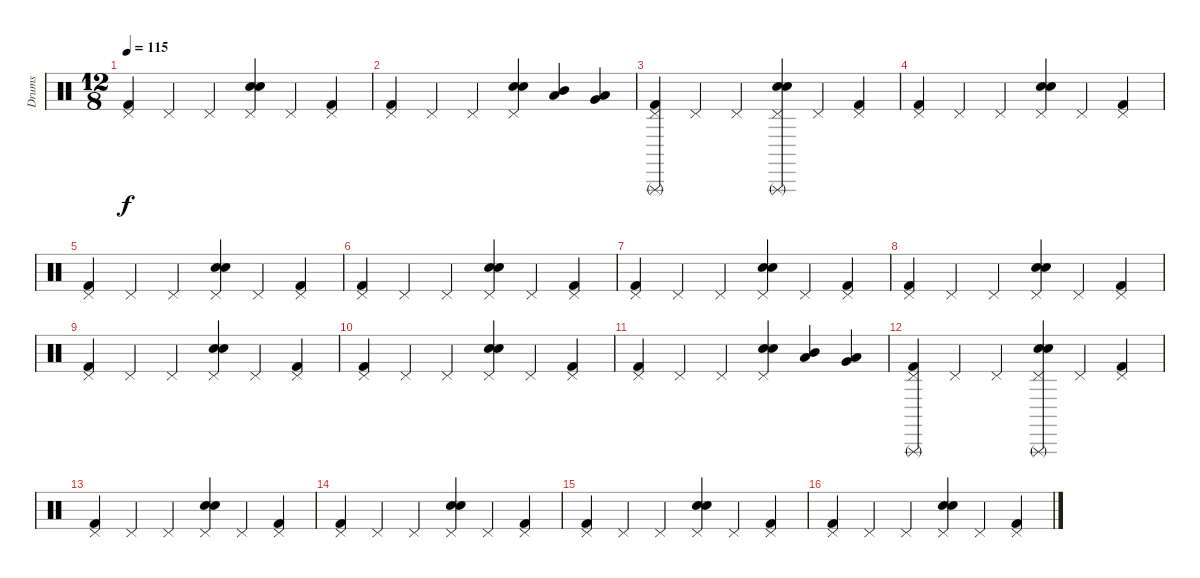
\track ("Drums" "Drums") {instrument percussion}
\staff {score}
\articulation defaults
\ts (12 8)
\tempo 115
\clef neutral
\ks c
("Kick (hit) 2" "Pedal Hi-Hat (hit)").4{dy f} "Pedal Hi-Hat (hit)".4 "Pedal Hi-Hat (hit)".4 ("Electric Snare (hit)" "Snare (hit) 2" "Pedal Hi-Hat (hit)").4 "Pedal Hi-Hat (hit)".4 ("Kick (hit) 2" "Pedal Hi-Hat (hit)").4 |
("Kick (hit) 2" "Pedal Hi-Hat (hit)").4 "Pedal Hi-Hat (hit)".4 "Pedal Hi-Hat (hit)".4 ("Electric Snare (hit)" "Snare (hit) 2" "Pedal Hi-Hat (hit)").4 ("Mid Tom (hit)" "Low Tom (hit)").4 ("Low Tom (hit)" "Very Low Tom (hit)").4 |
("Triangle (rnute)" "Kick (hit) 2" "Pedal Hi-Hat (hit)").4 "Pedal Hi-Hat (hit)".4 "Pedal Hi-Hat (hit)".4 ("Triangle (rnute)" "Electric Snare (hit)" "Snare (hit) 2" "Pedal Hi-Hat (hit)").4 "Pedal Hi-Hat (hit)".4 ("Kick (hit) 2" "Pedal Hi-Hat (hit)").4 |
("Kick (hit) 2" "Pedal Hi-Hat (hit)").4 "Pedal Hi-Hat (hit)".4 "Pedal Hi-Hat (hit)".4 ("Electric Snare (hit)" "Snare (hit) 2" "Pedal Hi-Hat (hit)").4 "Pedal Hi-Hat (hit)".4 ("Kick (hit) 2" "Pedal Hi-Hat (hit)").4 |
("Kick (hit) 2" "Pedal Hi-Hat (hit)").4 "Pedal Hi-Hat (hit)".4 "Pedal Hi-Hat (hit)".4 ("Electric Snare (hit)" "Snare (hit) 2" "Pedal Hi-Hat (hit)").4 "Pedal Hi-Hat (hit)".4 ("Kick (hit) 2" "Pedal Hi-Hat (hit)").4 |
("Kick (hit) 2" "Pedal Hi-Hat (hit)").4 "Pedal Hi-Hat (hit)".4 "Pedal Hi-Hat (hit)".4 ("Electric Snare (hit)" "Snare (hit) 2" "Pedal Hi-Hat (hit)").4 "Pedal Hi-Hat (hit)".4 ("Kick (hit) 2" "Pedal Hi-Hat (hit)").4 |
("Kick (hit) 2" "Pedal Hi-Hat (hit)").4 "Pedal Hi-Hat (hit)".4 "Pedal Hi-Hat (hit)".4 ("Electric Snare (hit)" "Snare (hit) 2" "Pedal Hi-Hat (hit)").4 "Pedal Hi-Hat (hit)".4 ("Kick (hit) 2" "Pedal Hi-Hat (hit)").4 |
("Kick (hit) 2" "Pedal Hi-Hat (hit)").4 "Pedal Hi-Hat (hit)".4 "Pedal Hi-Hat (hit)".4 ("Electric Snare (hit)" "Snare (hit) 2" "Pedal Hi-Hat (hit)").4 "Pedal Hi-Hat (hit)".4 ("Kick (hit) 2" "Pedal Hi-Hat (hit)").4 |
("Kick (hit) 2" "Pedal Hi-Hat (hit)").4 "Pedal Hi-Hat (hit)".4 "Pedal Hi-Hat (hit)".4 ("Electric Snare (hit)" "Snare (hit) 2" "Pedal Hi-Hat (hit)").4 "Pedal Hi-Hat (hit)".4 ("Kick (hit) 2" "Pedal Hi-Hat (hit)").4 |
("Kick (hit) 2" "Pedal Hi-Hat (hit)").4 "Pedal Hi-Hat (hit)".4 "Pedal Hi-Hat (hit)".4 ("Electric Snare (hit)" "Snare (hit) 2" "Pedal Hi-Hat (hit)").4 "Pedal Hi-Hat (hit)".4 ("Kick (hit) 2" "Pedal Hi-Hat (hit)").4 |
("Kick (hit) 2" "Pedal Hi-Hat (hit)").4 "Pedal Hi-Hat (hit)".4 "Pedal Hi-Hat (hit)".4 ("Electric Snare (hit)" "Snare (hit) 2" "Pedal Hi-Hat (hit)").4 ("Mid Tom (hit)" "Low Tom (hit)").4 ("Low Tom (hit)" "Very Low Tom (hit)").4 |
("Triangle (rnute)" "Kick (hit) 2" "Pedal Hi-Hat (hit)").4 "Pedal Hi-Hat (hit)".4 "Pedal Hi-Hat (hit)".4 ("Triangle (rnute)" "Electric Snare (hit)" "Snare (hit) 2" "Pedal Hi-Hat (hit)").4 "Pedal Hi-Hat (hit)".4 ("Kick (hit) 2" "Pedal Hi-Hat (hit)").4 |
("Kick (hit) 2" "Pedal Hi-Hat (hit)").4 "Pedal Hi-Hat (hit)".4 "Pedal Hi-Hat (hit)".4 ("Electric Snare (hit)" "Snare (hit) 2" "Pedal Hi-Hat (hit)").4 "Pedal Hi-Hat (hit)".4 ("Kick (hit) 2" "Pedal Hi-Hat (hit)").4 |
("Kick (hit) 2" "Pedal Hi-Hat (hit)").4 "Pedal Hi-Hat (hit)".4 "Pedal Hi-Hat (hit)".4 ("Electric Snare (hit)" "Snare (hit) 2" "Pedal Hi-Hat (hit)").4 "Pedal Hi-Hat (hit)".4 ("Kick (hit) 2" "Pedal Hi-Hat (hit)").4 |
("Kick (hit) 2" "Pedal Hi-Hat (hit)").4 "Pedal Hi-Hat (hit)".4 "Pedal Hi-Hat (hit)".4 ("Electric Snare (hit)" "Snare (hit) 2" "Pedal Hi-Hat (hit)").4 "Pedal Hi-Hat (hit)".4 ("Kick (hit) 2" "Pedal Hi-Hat (hit)").4 |
("Kick (hit) 2" "Pedal Hi-Hat (hit)").4 "Pedal Hi-Hat (hit)".4 "Pedal Hi-Hat (hit)".4 ("Electric Snare (hit)" "Snare (hit) 2" "Pedal Hi-Hat (hit)").4 "Pedal Hi-Hat (hit)".4 ("Kick (hit) 2" "Pedal Hi-Hat (hit)").4
